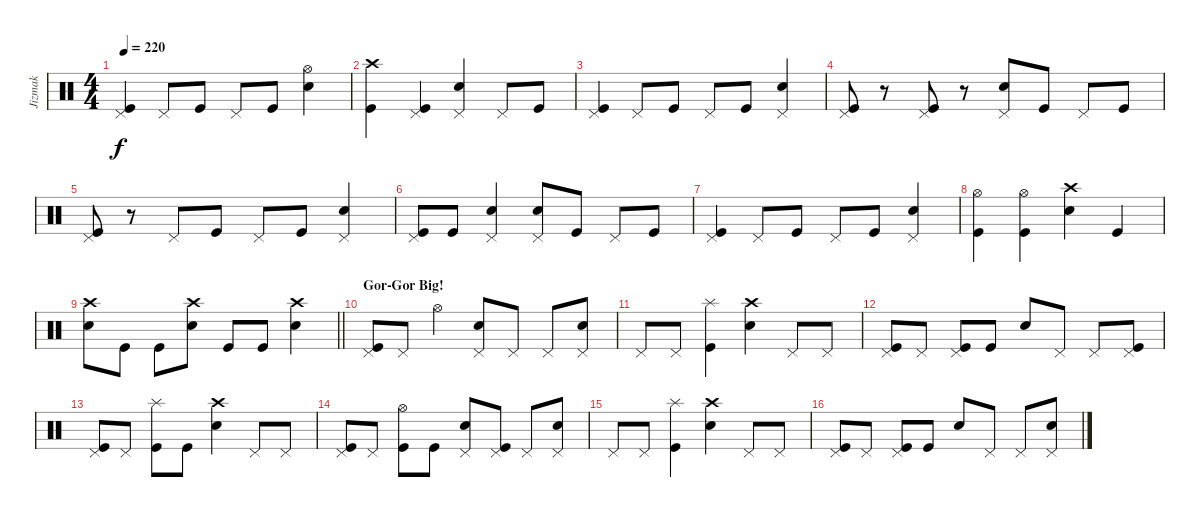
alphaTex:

\track ("Jizmak" "Jizmak") {instrument percussion}
\staff {score}
\articulation defaults
\ts (4 4)
\tempo 220
\clef neutral
\ks c
("Pedal Hi-Hat (hit)" "Kick (hit)").4{dy f} "Pedal Hi-Hat (hit)".8 "Kick (hit)".8 "Pedal Hi-Hat (hit)".8 "Kick (hit)".8 ("Hi-Hat (open)" "Snare (hit) 2").4 |
("Crash high (hit)" "Kick (hit)").4 ("Pedal Hi-Hat (hit)" "Kick (hit)").4 ("Pedal Hi-Hat (hit)" "Snare (hit) 2").4 "Pedal Hi-Hat (hit)".8 "Kick (hit)".8 |
("Pedal Hi-Hat (hit)" "Kick (hit)").4 "Pedal Hi-Hat (hit)".8 "Kick (hit)".8 "Pedal Hi-Hat (hit)".8 "Kick (hit)".8 ("Pedal Hi-Hat (hit)" "Snare (hit) 2").4 |
("Pedal Hi-Hat (hit)" "Kick (hit)").8 r.8 ("Pedal Hi-Hat (hit)" "Kick (hit)").8 r.8 ("Pedal Hi-Hat (hit)" "Snare (hit) 2").8 "Kick (hit)".8 "Pedal Hi-Hat (hit)".8 "Kick (hit)".8 |
("Pedal Hi-Hat (hit)" "Kick (hit)").8 r.8 "Pedal Hi-Hat (hit)".8 "Kick (hit)".8 "Pedal Hi-Hat (hit)".8 "Kick (hit)".8 ("Pedal Hi-Hat (hit)" "Snare (hit) 2").4 |
("Pedal Hi-Hat (hit)" "Kick (hit)").8 "Kick (hit)".8 ("Pedal Hi-Hat (hit)" "Snare (hit) 2").4 ("Pedal Hi-Hat (hit)" "Snare (hit) 2").8 "Kick (hit)".8 "Pedal Hi-Hat (hit)".8 "Kick (hit)".8 |
("Pedal Hi-Hat (hit)" "Kick (hit)").4 "Pedal Hi-Hat (hit)".8 "Kick (hit)".8 "Pedal Hi-Hat (hit)".8 "Kick (hit)".8 ("Pedal Hi-Hat (hit)" "Snare (hit) 2").4 |
("Hi-Hat (open)" "Kick (hit)").4 ("Hi-Hat (open)" "Kick (hit)").4 ("Crash high (hit)" "Snare (hit) 2").4 "Kick (hit)".4 |
\barLineRight lightlight
("Crash high (hit)" "Snare (hit) 2").8 "Kick (hit)".8 "Kick (hit)".8 ("Crash high (hit)" "Snare (hit) 2").8 "Kick (hit)".8 "Kick (hit)".8 ("Crash high (hit)" "Snare (hit) 2").4 |
\section ("" "Gor-Gor Big!")
("Pedal Hi-Hat (hit)" "Kick (hit)").8 "Pedal Hi-Hat (hit)".8 "Hi-Hat (open)".4 ("Pedal Hi-Hat (hit)" "Snare (hit) 2").8 "Pedal Hi-Hat (hit)".8 "Pedal Hi-Hat (hit)".8 ("Pedal Hi-Hat (hit)" "Snare (hit) 2").8 |
"Pedal Hi-Hat (hit)".8 "Pedal Hi-Hat (hit)".8 ("Splash (hit)" "Kick (hit)").4 ("Crash high (hit)" "Snare (hit) 2").4 "Pedal Hi-Hat (hit)".8 "Pedal Hi-Hat (hit)".8 |
("Pedal Hi-Hat (hit)" "Kick (hit)").8 "Pedal Hi-Hat (hit)".8 ("Pedal Hi-Hat (hit)" "Kick (hit)").8 "Kick (hit)".8 "Snare (hit) 2".8 "Pedal Hi-Hat (hit)".8 "Pedal Hi-Hat (hit)".8 ("Pedal Hi-Hat (hit)" "Kick (hit)").8 |
("Pedal Hi-Hat (hit)" "Kick (hit)").8 "Pedal Hi-Hat (hit)".8 ("Splash (hit)" "Kick (hit)").8 "Kick (hit)".8 ("Crash high (hit)" "Snare (hit) 2").4 "Pedal Hi-Hat (hit)".8 "Pedal Hi-Hat (hit)".8 |
("Pedal Hi-Hat (hit)" "Kick (hit)").8 "Pedal Hi-Hat (hit)".8 ("Hi-Hat (open)" "Kick (hit)").8 "Kick (hit)".8 ("Pedal Hi-Hat (hit)" "Snare (hit) 2").8 ("Pedal Hi-Hat (hit)" "Kick (hit)").8 "Pedal Hi-Hat (hit)".8 ("Pedal Hi-Hat (hit)" "Snare (hit) 2").8 |
"Pedal Hi-Hat (hit)".8 "Pedal Hi-Hat (hit)".8 ("Splash (hit)" "Kick (hit)").4 ("Crash high (hit)" "Snare (hit) 2").4 "Pedal Hi-Hat (hit)".8 "Pedal Hi-Hat (hit)".8 |
("Pedal Hi-Hat (hit)" "Kick (hit)").8 "Pedal Hi-Hat (hit)".8 ("Pedal Hi-Hat (hit)" "Kick (hit)").8 "Kick (hit)".8 "Snare (hit) 2".8 "Pedal Hi-Hat (hit)".8 "Pedal Hi-Hat (hit)".8 ("Pedal Hi-Hat (hit)" "Snare (hit) 2").8
